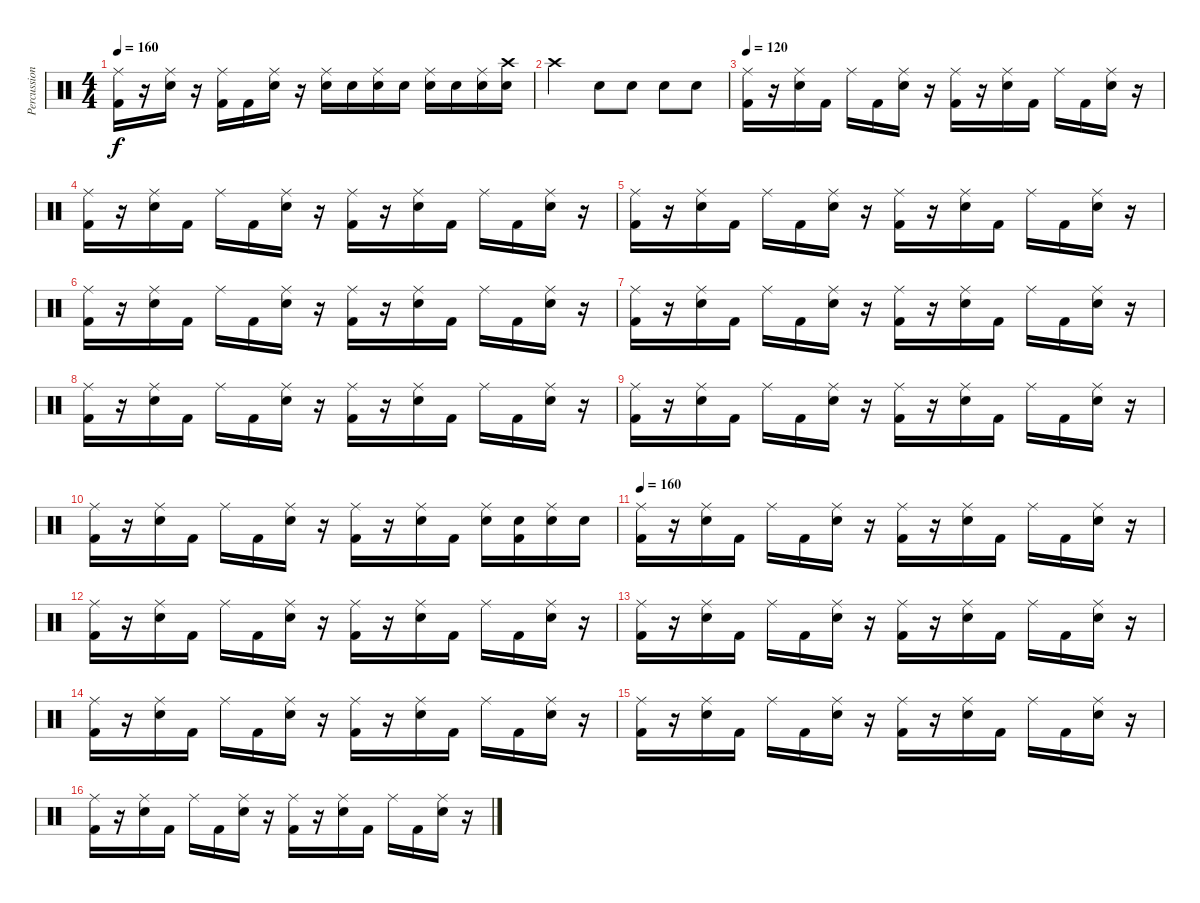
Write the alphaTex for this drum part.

\track ("Percussion" "Percussion") {instrument percussion}
\staff {score}
\articulation defaults
\ts (4 4)
\tempo 160
\clef neutral
\ks c
("Ride (middle)" "Kick (hit) 2").16{dy f} r.16 ("Ride (middle)" "Electric Snare (hit)").16 r.16 ("Ride (middle)" "Kick (hit) 2").16 "Kick (hit) 2".16 ("Ride (middle)" "Electric Snare (hit)").16 r.16 ("Ride (middle)" "Electric Snare (hit)").16 "Electric Snare (hit)".16 ("Ride (middle)" "Electric Snare (hit)").16 "Electric Snare (hit)".16 ("Ride (middle)" "Electric Snare (hit)").16 "Electric Snare (hit)".16 ("Ride (middle)" "Electric Snare (hit)").16 ("Crash high (hit)" "Electric Snare (hit)").16 |
"Crash high (hit)".2 "Electric Snare (hit)".8 "Electric Snare (hit)".8 "Electric Snare (hit)".8 "Electric Snare (hit)".8 |
\tempo 120
("Ride (middle)" "Kick (hit) 2").16 r.16 ("Ride (middle)" "Electric Snare (hit)").16 "Kick (hit) 2".16 "Ride (middle)".16 "Kick (hit) 2".16 ("Ride (middle)" "Electric Snare (hit)").16 r.16 ("Ride (middle)" "Kick (hit) 2").16 r.16 ("Ride (middle)" "Electric Snare (hit)").16 "Kick (hit) 2".16 "Ride (middle)".16 "Kick (hit) 2".16 ("Ride (middle)" "Electric Snare (hit)").16 r.16 |
("Ride (middle)" "Kick (hit) 2").16 r.16 ("Ride (middle)" "Electric Snare (hit)").16 "Kick (hit) 2".16 "Ride (middle)".16 "Kick (hit) 2".16 ("Ride (middle)" "Electric Snare (hit)").16 r.16 ("Ride (middle)" "Kick (hit) 2").16 r.16 ("Ride (middle)" "Electric Snare (hit)").16 "Kick (hit) 2".16 "Ride (middle)".16 "Kick (hit) 2".16 ("Ride (middle)" "Electric Snare (hit)").16 r.16 |
("Ride (middle)" "Kick (hit) 2").16 r.16 ("Ride (middle)" "Electric Snare (hit)").16 "Kick (hit) 2".16 "Ride (middle)".16 "Kick (hit) 2".16 ("Ride (middle)" "Electric Snare (hit)").16 r.16 ("Ride (middle)" "Kick (hit) 2").16 r.16 ("Ride (middle)" "Electric Snare (hit)").16 "Kick (hit) 2".16 "Ride (middle)".16 "Kick (hit) 2".16 ("Ride (middle)" "Electric Snare (hit)").16 r.16 |
("Ride (middle)" "Kick (hit) 2").16 r.16 ("Ride (middle)" "Electric Snare (hit)").16 "Kick (hit) 2".16 "Ride (middle)".16 "Kick (hit) 2".16 ("Ride (middle)" "Electric Snare (hit)").16 r.16 ("Ride (middle)" "Kick (hit) 2").16 r.16 ("Ride (middle)" "Electric Snare (hit)").16 "Kick (hit) 2".16 "Ride (middle)".16 "Kick (hit) 2".16 ("Ride (middle)" "Electric Snare (hit)").16 r.16 |
("Ride (middle)" "Kick (hit) 2").16 r.16 ("Ride (middle)" "Electric Snare (hit)").16 "Kick (hit) 2".16 "Ride (middle)".16 "Kick (hit) 2".16 ("Ride (middle)" "Electric Snare (hit)").16 r.16 ("Ride (middle)" "Kick (hit) 2").16 r.16 ("Ride (middle)" "Electric Snare (hit)").16 "Kick (hit) 2".16 "Ride (middle)".16 "Kick (hit) 2".16 ("Ride (middle)" "Electric Snare (hit)").16 r.16 |
("Ride (middle)" "Kick (hit) 2").16 r.16 ("Ride (middle)" "Electric Snare (hit)").16 "Kick (hit) 2".16 "Ride (middle)".16 "Kick (hit) 2".16 ("Ride (middle)" "Electric Snare (hit)").16 r.16 ("Ride (middle)" "Kick (hit) 2").16 r.16 ("Ride (middle)" "Electric Snare (hit)").16 "Kick (hit) 2".16 "Ride (middle)".16 "Kick (hit) 2".16 ("Ride (middle)" "Electric Snare (hit)").16 r.16 |
("Ride (middle)" "Kick (hit) 2").16 r.16 ("Ride (middle)" "Electric Snare (hit)").16 "Kick (hit) 2".16 "Ride (middle)".16 "Kick (hit) 2".16 ("Ride (middle)" "Electric Snare (hit)").16 r.16 ("Ride (middle)" "Kick (hit) 2").16 r.16 ("Ride (middle)" "Electric Snare (hit)").16 "Kick (hit) 2".16 "Ride (middle)".16 "Kick (hit) 2".16 ("Ride (middle)" "Electric Snare (hit)").16 r.16 |
("Ride (middle)" "Kick (hit) 2").16 r.16 ("Ride (middle)" "Electric Snare (hit)").16 "Kick (hit) 2".16 "Ride (middle)".16 "Kick (hit) 2".16 ("Ride (middle)" "Electric Snare (hit)").16 r.16 ("Ride (middle)" "Kick (hit) 2").16 r.16 ("Ride (middle)" "Electric Snare (hit)").16 "Kick (hit) 2".16 ("Ride (middle)" "Electric Snare (hit)").16 ("Electric Snare (hit)" "Kick (hit) 2").16 ("Ride (middle)" "Electric Snare (hit)").16 "Electric Snare (hit)".16 |
\tempo 160
("Ride (middle)" "Kick (hit) 2").16 r.16 ("Ride (middle)" "Electric Snare (hit)").16 "Kick (hit) 2".16 "Ride (middle)".16 "Kick (hit) 2".16 ("Ride (middle)" "Electric Snare (hit)").16 r.16 ("Ride (middle)" "Kick (hit) 2").16 r.16 ("Ride (middle)" "Electric Snare (hit)").16 "Kick (hit) 2".16 "Ride (middle)".16 "Kick (hit) 2".16 ("Ride (middle)" "Electric Snare (hit)").16 r.16 |
("Ride (middle)" "Kick (hit) 2").16 r.16 ("Ride (middle)" "Electric Snare (hit)").16 "Kick (hit) 2".16 "Ride (middle)".16 "Kick (hit) 2".16 ("Ride (middle)" "Electric Snare (hit)").16 r.16 ("Ride (middle)" "Kick (hit) 2").16 r.16 ("Ride (middle)" "Electric Snare (hit)").16 "Kick (hit) 2".16 "Ride (middle)".16 "Kick (hit) 2".16 ("Ride (middle)" "Electric Snare (hit)").16 r.16 |
("Ride (middle)" "Kick (hit) 2").16 r.16 ("Ride (middle)" "Electric Snare (hit)").16 "Kick (hit) 2".16 "Ride (middle)".16 "Kick (hit) 2".16 ("Ride (middle)" "Electric Snare (hit)").16 r.16 ("Ride (middle)" "Kick (hit) 2").16 r.16 ("Ride (middle)" "Electric Snare (hit)").16 "Kick (hit) 2".16 "Ride (middle)".16 "Kick (hit) 2".16 ("Ride (middle)" "Electric Snare (hit)").16 r.16 |
("Ride (middle)" "Kick (hit) 2").16 r.16 ("Ride (middle)" "Electric Snare (hit)").16 "Kick (hit) 2".16 "Ride (middle)".16 "Kick (hit) 2".16 ("Ride (middle)" "Electric Snare (hit)").16 r.16 ("Ride (middle)" "Kick (hit) 2").16 r.16 ("Ride (middle)" "Electric Snare (hit)").16 "Kick (hit) 2".16 "Ride (middle)".16 "Kick (hit) 2".16 ("Ride (middle)" "Electric Snare (hit)").16 r.16 |
("Ride (middle)" "Kick (hit) 2").16 r.16 ("Ride (middle)" "Electric Snare (hit)").16 "Kick (hit) 2".16 "Ride (middle)".16 "Kick (hit) 2".16 ("Ride (middle)" "Electric Snare (hit)").16 r.16 ("Ride (middle)" "Kick (hit) 2").16 r.16 ("Ride (middle)" "Electric Snare (hit)").16 "Kick (hit) 2".16 "Ride (middle)".16 "Kick (hit) 2".16 ("Ride (middle)" "Electric Snare (hit)").16 r.16 |
("Ride (middle)" "Kick (hit) 2").16 r.16 ("Ride (middle)" "Electric Snare (hit)").16 "Kick (hit) 2".16 "Ride (middle)".16 "Kick (hit) 2".16 ("Ride (middle)" "Electric Snare (hit)").16 r.16 ("Ride (middle)" "Kick (hit) 2").16 r.16 ("Ride (middle)" "Electric Snare (hit)").16 "Kick (hit) 2".16 "Ride (middle)".16 "Kick (hit) 2".16 ("Ride (middle)" "Electric Snare (hit)").16 r.16
